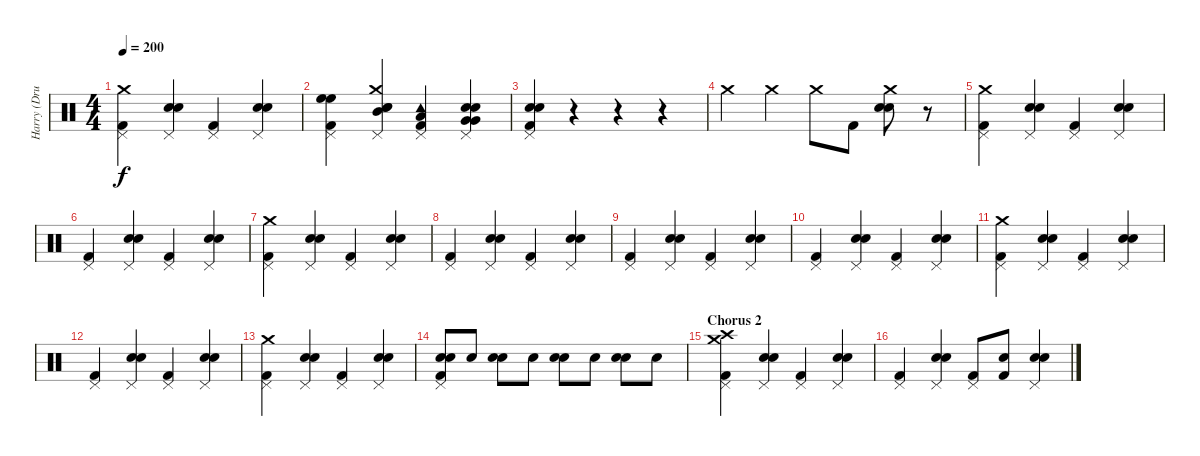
\track ("Harry (Drums)" "Harry (Dru") {instrument percussion}
\staff {score}
\articulation defaults
\ts (4 4)
\tempo 200
\clef neutral
\ks c
("Kick (hit) 2" "Pedal Hi-Hat (hit)" "Crash medium (hit)").4{dy f} ("Snare (hit) 2" "Electric Snare (hit)" "Pedal Hi-Hat (hit)").4 ("Kick (hit) 2" "Pedal Hi-Hat (hit)").4 ("Snare (hit) 2" "Electric Snare (hit)" "Pedal Hi-Hat (hit)").4 |
("Kick (hit) 2" "High Floor Tom (hit)" "Pedal Hi-Hat (hit)" "High Floor Tom (hit)").4 ("Snare (hit) 2" "Electric Snare (hit)" "Mid Tom (hit)" "Pedal Hi-Hat (hit)" "Crash medium (hit)").4 ("Kick (hit) 2" "Low Tom (hit)" "Pedal Hi-Hat (hit)" "Tambourine (hit)").4 ("Snare (hit) 2" "Electric Snare (hit)" "Very Low Tom (hit)" "Pedal Hi-Hat (hit)" "Very Low Tom (hit)").4 |
("Kick (hit) 2" "Electric Snare (hit)" "Snare (hit) 2" "Pedal Hi-Hat (hit)").4 r.4 r.4 r.4 |
"Crash medium (hit)".4 "Crash medium (hit)".4 "Crash medium (hit)".8 "Kick (hit) 2".8 ("Crash medium (hit)" "Electric Snare (hit)" "Snare (hit) 2").8 r.8 |
("Kick (hit) 2" "Pedal Hi-Hat (hit)" "Crash medium (hit)").4 ("Snare (hit) 2" "Electric Snare (hit)" "Pedal Hi-Hat (hit)").4 ("Kick (hit) 2" "Pedal Hi-Hat (hit)").4 ("Snare (hit) 2" "Electric Snare (hit)" "Pedal Hi-Hat (hit)").4 |
("Kick (hit) 2" "Pedal Hi-Hat (hit)").4 ("Snare (hit) 2" "Electric Snare (hit)" "Pedal Hi-Hat (hit)").4 ("Kick (hit) 2" "Pedal Hi-Hat (hit)").4 ("Snare (hit) 2" "Electric Snare (hit)" "Pedal Hi-Hat (hit)").4 |
("Kick (hit) 2" "Pedal Hi-Hat (hit)" "Crash medium (hit)").4 ("Snare (hit) 2" "Electric Snare (hit)" "Pedal Hi-Hat (hit)").4 ("Kick (hit) 2" "Pedal Hi-Hat (hit)").4 ("Snare (hit) 2" "Electric Snare (hit)" "Pedal Hi-Hat (hit)").4 |
("Kick (hit) 2" "Pedal Hi-Hat (hit)").4 ("Snare (hit) 2" "Electric Snare (hit)" "Pedal Hi-Hat (hit)").4 ("Kick (hit) 2" "Pedal Hi-Hat (hit)").4 ("Snare (hit) 2" "Electric Snare (hit)" "Pedal Hi-Hat (hit)").4 |
("Kick (hit) 2" "Pedal Hi-Hat (hit)").4 ("Snare (hit) 2" "Electric Snare (hit)" "Pedal Hi-Hat (hit)").4 ("Kick (hit) 2" "Pedal Hi-Hat (hit)").4 ("Snare (hit) 2" "Electric Snare (hit)" "Pedal Hi-Hat (hit)").4 |
("Kick (hit) 2" "Pedal Hi-Hat (hit)").4 ("Snare (hit) 2" "Electric Snare (hit)" "Pedal Hi-Hat (hit)").4 ("Kick (hit) 2" "Pedal Hi-Hat (hit)").4 ("Snare (hit) 2" "Electric Snare (hit)" "Pedal Hi-Hat (hit)").4 |
("Kick (hit) 2" "Pedal Hi-Hat (hit)" "Crash medium (hit)").4 ("Snare (hit) 2" "Electric Snare (hit)" "Pedal Hi-Hat (hit)").4 ("Kick (hit) 2" "Pedal Hi-Hat (hit)").4 ("Snare (hit) 2" "Electric Snare (hit)" "Pedal Hi-Hat (hit)").4 |
("Kick (hit) 2" "Pedal Hi-Hat (hit)").4 ("Snare (hit) 2" "Electric Snare (hit)" "Pedal Hi-Hat (hit)").4 ("Kick (hit) 2" "Pedal Hi-Hat (hit)").4 ("Snare (hit) 2" "Electric Snare (hit)" "Pedal Hi-Hat (hit)").4 |
("Kick (hit) 2" "Pedal Hi-Hat (hit)" "Crash medium (hit)").4 ("Snare (hit) 2" "Electric Snare (hit)" "Pedal Hi-Hat (hit)").4 ("Kick (hit) 2" "Pedal Hi-Hat (hit)").4 ("Snare (hit) 2" "Electric Snare (hit)" "Pedal Hi-Hat (hit)").4 |
("Kick (hit) 2" "Electric Snare (hit)" "Snare (hit) 2" "Pedal Hi-Hat (hit)").8 "Snare (hit) 2".8 ("Snare (hit) 2" "Electric Snare (hit)").8 "Snare (hit) 2".8 ("Snare (hit) 2" "Electric Snare (hit)").8 "Snare (hit) 2".8 ("Snare (hit) 2" "Electric Snare (hit)").8 "Snare (hit) 2".8 |
\section ("" "Chorus 2")
("Kick (hit) 2" "Pedal Hi-Hat (hit)" "Crash medium (hit)" "Crash high (hit)").4 ("Snare (hit) 2" "Electric Snare (hit)" "Pedal Hi-Hat (hit)").4 ("Kick (hit) 2" "Pedal Hi-Hat (hit)").4 ("Snare (hit) 2" "Electric Snare (hit)" "Pedal Hi-Hat (hit)").4 |
("Kick (hit) 2" "Pedal Hi-Hat (hit)").4 ("Snare (hit) 2" "Electric Snare (hit)" "Pedal Hi-Hat (hit)").4 ("Kick (hit) 2" "Pedal Hi-Hat (hit)").8 ("Kick (hit) 2" "Electric Snare (hit)").8 ("Snare (hit) 2" "Electric Snare (hit)" "Pedal Hi-Hat (hit)").4
